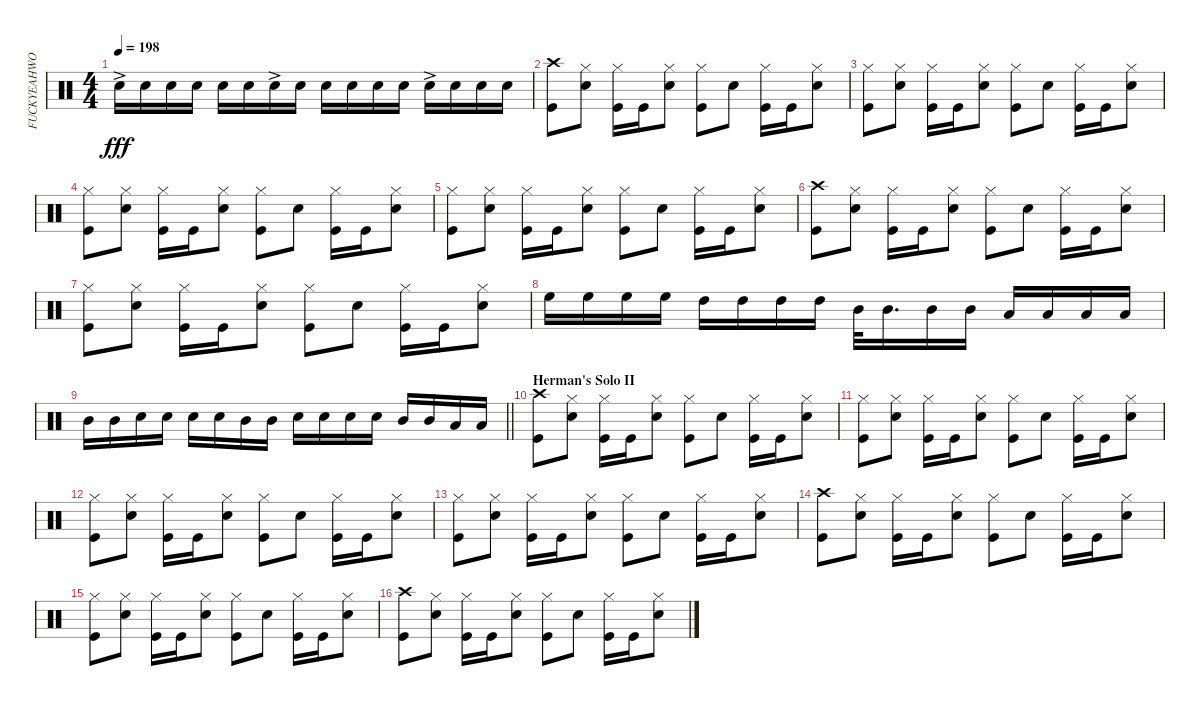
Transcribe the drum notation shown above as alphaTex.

\track ("FUCKYEAHWOOTDAVEMACKINTOSH!(Percussion)" "FUCKYEAHWO") {instrument percussion}
\staff {score}
\articulation defaults
\ts (4 4)
\tempo 198
\clef neutral
\ks c "Snare (hit) 2"{ac}.16{dy fff} "Snare (hit) 2".16 "Snare (hit) 2".16 "Snare (hit) 2".16 "Snare (hit) 2".16 "Snare (hit) 2".16 "Snare (hit) 2"{ac}.16 "Snare (hit) 2".16 "Snare (hit) 2".16 "Snare (hit) 2".16 "Snare (hit) 2".16 "Snare (hit) 2".16 "Snare (hit) 2"{ac}.16 "Snare (hit) 2".16 "Snare (hit) 2".16 "Snare (hit) 2".16
|
("Kick (hit)" "Crash high (hit)").8 ("Snare (hit) 2" "Hi-Hat (closed)").8 ("Kick (hit)" "Hi-Hat (closed)").16 "Kick (hit)".16 ("Snare (hit) 2" "Hi-Hat (closed)").8 ("Kick (hit)" "Hi-Hat (closed)").8 "Snare (hit) 2".8 ("Kick (hit)" "Hi-Hat (closed)").16 "Kick (hit)".16 ("Snare (hit) 2" "Hi-Hat (closed)").8 |
("Kick (hit)" "Hi-Hat (closed)").8 ("Snare (hit) 2" "Hi-Hat (closed)").8 ("Kick (hit)" "Hi-Hat (closed)").16 "Kick (hit)".16 ("Snare (hit) 2" "Hi-Hat (closed)").8 ("Kick (hit)" "Hi-Hat (closed)").8 "Snare (hit) 2".8 ("Kick (hit)" "Hi-Hat (closed)").16 "Kick (hit)".16 ("Snare (hit) 2" "Hi-Hat (closed)").8 |
("Kick (hit)" "Hi-Hat (closed)").8 ("Snare (hit) 2" "Hi-Hat (closed)").8 ("Kick (hit)" "Hi-Hat (closed)").16 "Kick (hit)".16 ("Snare (hit) 2" "Hi-Hat (closed)").8 ("Kick (hit)" "Hi-Hat (closed)").8 "Snare (hit) 2".8 ("Kick (hit)" "Hi-Hat (closed)").16 "Kick (hit)".16 ("Snare (hit) 2" "Hi-Hat (closed)").8 |
("Kick (hit)" "Hi-Hat (closed)").8 ("Snare (hit) 2" "Hi-Hat (closed)").8 ("Kick (hit)" "Hi-Hat (closed)").16 "Kick (hit)".16 ("Snare (hit) 2" "Hi-Hat (closed)").8 ("Kick (hit)" "Hi-Hat (closed)").8 "Snare (hit) 2".8 ("Kick (hit)" "Hi-Hat (closed)").16 "Kick (hit)".16 ("Snare (hit) 2" "Hi-Hat (closed)").8 |
("Kick (hit)" "Crash high (hit)").8 ("Snare (hit) 2" "Hi-Hat (closed)").8 ("Kick (hit)" "Hi-Hat (closed)").16 "Kick (hit)".16 ("Snare (hit) 2" "Hi-Hat (closed)").8 ("Kick (hit)" "Hi-Hat (closed)").8 "Snare (hit) 2".8 ("Kick (hit)" "Hi-Hat (closed)").16 "Kick (hit)".16 ("Snare (hit) 2" "Hi-Hat (closed)").8 |
("Kick (hit)" "Hi-Hat (closed)").8 ("Snare (hit) 2" "Hi-Hat (closed)").8 ("Kick (hit)" "Hi-Hat (closed)").16 "Kick (hit)".16 ("Snare (hit) 2" "Hi-Hat (closed)").8 ("Kick (hit)" "Hi-Hat (closed)").8 "Snare (hit) 2".8 ("Kick (hit)" "Hi-Hat (closed)").16 "Kick (hit)".16 ("Snare (hit) 2" "Hi-Hat (closed)").8 |
"High Floor Tom (hit)".16 "High Floor Tom (hit)".16 "High Floor Tom (hit)".16 "High Floor Tom (hit)".16 "High Tom (hit)".16 "High Tom (hit)".16 "High Tom (hit)".16 "High Tom (hit)".16 "Mid Tom (hit)".32 "Mid Tom (hit)".16{d} "Mid Tom (hit)".16 "Mid Tom (hit)".16 "Low Tom (hit)".16 "Low Tom (hit)".16 "Low Tom (hit)".16 "Low Tom (hit)".16 |
\barLineRight lightlight "Mid Tom (hit)".16 "Mid Tom (hit)".16 "Snare (hit) 2".16 "Snare (hit) 2".16 "Snare (hit) 2".16 "Snare (hit) 2".16 "Mid Tom (hit)".16 "Mid Tom (hit)".16 "Snare (hit) 2".16 "Snare (hit) 2".16 "Snare (hit) 2".16 "Snare (hit) 2".16 "Mid Tom (hit)".16 "Mid Tom (hit)".16 "Low Tom (hit)".16 "Low Tom (hit)".16
|
\section ("" "Herman's Solo II")
("Kick (hit)" "Crash high (hit)").8 ("Snare (hit) 2" "Hi-Hat (closed)").8 ("Kick (hit)" "Hi-Hat (closed)").16 "Kick (hit)".16 ("Snare (hit) 2" "Hi-Hat (closed)").8 ("Kick (hit)" "Hi-Hat (closed)").8 "Snare (hit) 2".8 ("Kick (hit)" "Hi-Hat (closed)").16 "Kick (hit)".16 ("Snare (hit) 2" "Hi-Hat (closed)").8 |
("Kick (hit)" "Hi-Hat (closed)").8 ("Snare (hit) 2" "Hi-Hat (closed)").8 ("Kick (hit)" "Hi-Hat (closed)").16 "Kick (hit)".16 ("Snare (hit) 2" "Hi-Hat (closed)").8 ("Kick (hit)" "Hi-Hat (closed)").8 "Snare (hit) 2".8 ("Kick (hit)" "Hi-Hat (closed)").16 "Kick (hit)".16 ("Snare (hit) 2" "Hi-Hat (closed)").8 |
("Kick (hit)" "Hi-Hat (closed)").8 ("Snare (hit) 2" "Hi-Hat (closed)").8 ("Kick (hit)" "Hi-Hat (closed)").16 "Kick (hit)".16 ("Snare (hit) 2" "Hi-Hat (closed)").8 ("Kick (hit)" "Hi-Hat (closed)").8 "Snare (hit) 2".8 ("Kick (hit)" "Hi-Hat (closed)").16 "Kick (hit)".16 ("Snare (hit) 2" "Hi-Hat (closed)").8 |
("Kick (hit)" "Hi-Hat (closed)").8 ("Snare (hit) 2" "Hi-Hat (closed)").8 ("Kick (hit)" "Hi-Hat (closed)").16 "Kick (hit)".16 ("Snare (hit) 2" "Hi-Hat (closed)").8 ("Kick (hit)" "Hi-Hat (closed)").8 "Snare (hit) 2".8 ("Kick (hit)" "Hi-Hat (closed)").16 "Kick (hit)".16 ("Snare (hit) 2" "Hi-Hat (closed)").8 |
("Kick (hit)" "Crash high (hit)").8 ("Snare (hit) 2" "Hi-Hat (closed)").8 ("Kick (hit)" "Hi-Hat (closed)").16 "Kick (hit)".16 ("Snare (hit) 2" "Hi-Hat (closed)").8 ("Kick (hit)" "Hi-Hat (closed)").8 "Snare (hit) 2".8 ("Kick (hit)" "Hi-Hat (closed)").16 "Kick (hit)".16 ("Snare (hit) 2" "Hi-Hat (closed)").8 |
("Kick (hit)" "Hi-Hat (closed)").8 ("Snare (hit) 2" "Hi-Hat (closed)").8 ("Kick (hit)" "Hi-Hat (closed)").16 "Kick (hit)".16 ("Snare (hit) 2" "Hi-Hat (closed)").8 ("Kick (hit)" "Hi-Hat (closed)").8 "Snare (hit) 2".8 ("Kick (hit)" "Hi-Hat (closed)").16 "Kick (hit)".16 ("Snare (hit) 2" "Hi-Hat (closed)").8 |
("Kick (hit)" "Crash high (hit)").8 ("Snare (hit) 2" "Hi-Hat (closed)").8 ("Kick (hit)" "Hi-Hat (closed)").16 "Kick (hit)".16 ("Snare (hit) 2" "Hi-Hat (closed)").8 ("Kick (hit)" "Hi-Hat (closed)").8 "Snare (hit) 2".8 ("Kick (hit)" "Hi-Hat (closed)").16 "Kick (hit)".16 ("Snare (hit) 2" "Hi-Hat (closed)").8
